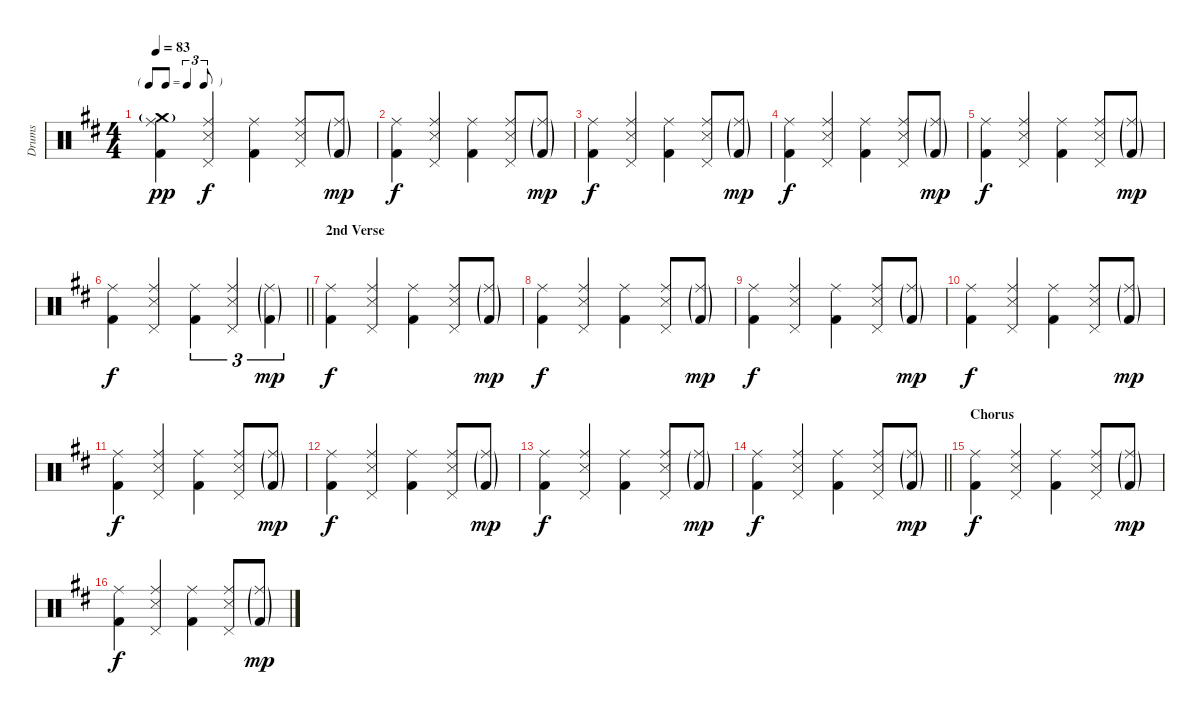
\track ("Drums" "Drums") {instrument percussion}
\staff {score}
\articulation defaults
\ts (4 4)
\tf triplet8th
\tempo 83
\clef neutral
\ks d
("Ride (middle)" "Crash medium (hit)"{g} "Kick (hit) 2").4{dy pp} ("Ride (middle)" "Snare (side stick) 3" "Pedal Hi-Hat (hit)").4{dy f} ("Ride (middle)" "Kick (hit) 2").4 ("Ride (middle)" "Snare (side stick) 3" "Pedal Hi-Hat (hit)").8 ("Ride (middle)"{g} "Kick (hit) 2"{g}).8{dy mp} |
("Ride (middle)" "Kick (hit) 2").4{dy f} ("Ride (middle)" "Snare (side stick) 3" "Pedal Hi-Hat (hit)").4 ("Ride (middle)" "Kick (hit) 2").4 ("Ride (middle)" "Snare (side stick) 3" "Pedal Hi-Hat (hit)").8 ("Ride (middle)"{g} "Kick (hit) 2"{g}).8{dy mp} |
("Ride (middle)" "Kick (hit) 2").4{dy f} ("Ride (middle)" "Snare (side stick) 3" "Pedal Hi-Hat (hit)").4 ("Ride (middle)" "Kick (hit) 2").4 ("Ride (middle)" "Snare (side stick) 3" "Pedal Hi-Hat (hit)").8 ("Ride (middle)"{g} "Kick (hit) 2"{g}).8{dy mp} |
("Ride (middle)" "Kick (hit) 2").4{dy f} ("Ride (middle)" "Snare (side stick) 3" "Pedal Hi-Hat (hit)").4 ("Ride (middle)" "Kick (hit) 2").4 ("Ride (middle)" "Snare (side stick) 3" "Pedal Hi-Hat (hit)").8 ("Ride (middle)"{g} "Kick (hit) 2"{g}).8{dy mp} |
("Ride (middle)" "Kick (hit) 2").4{dy f} ("Ride (middle)" "Snare (side stick) 3" "Pedal Hi-Hat (hit)").4 ("Ride (middle)" "Kick (hit) 2").4 ("Ride (middle)" "Snare (side stick) 3" "Pedal Hi-Hat (hit)").8 ("Ride (middle)"{g} "Kick (hit) 2"{g}).8{dy mp} |
\barLineRight lightlight
("Ride (middle)" "Kick (hit) 2").4{dy f} ("Ride (middle)" "Snare (side stick) 3" "Pedal Hi-Hat (hit)").4 ("Ride (middle)" "Kick (hit) 2").4{tu (3 2)} ("Ride (middle)" "Snare (side stick) 3" "Pedal Hi-Hat (hit)").4{tu (3 2)} ("Ride (middle)"{g} "Kick (hit) 2"{g}).4{tu (3 2) dy mp} |
\section ("" "2nd Verse")
("Ride (middle)" "Kick (hit) 2").4{dy f} ("Ride (middle)" "Snare (side stick) 3" "Pedal Hi-Hat (hit)").4 ("Ride (middle)" "Kick (hit) 2").4 ("Ride (middle)" "Snare (side stick) 3" "Pedal Hi-Hat (hit)").8 ("Ride (middle)"{g} "Kick (hit) 2"{g}).8{dy mp} |
("Ride (middle)" "Kick (hit) 2").4{dy f} ("Ride (middle)" "Snare (side stick) 3" "Pedal Hi-Hat (hit)").4 ("Ride (middle)" "Kick (hit) 2").4 ("Ride (middle)" "Snare (side stick) 3" "Pedal Hi-Hat (hit)").8 ("Ride (middle)"{g} "Kick (hit) 2"{g}).8{dy mp} |
("Ride (middle)" "Kick (hit) 2").4{dy f} ("Ride (middle)" "Snare (side stick) 3" "Pedal Hi-Hat (hit)").4 ("Ride (middle)" "Kick (hit) 2").4 ("Ride (middle)" "Snare (side stick) 3" "Pedal Hi-Hat (hit)").8 ("Ride (middle)"{g} "Kick (hit) 2"{g}).8{dy mp} |
("Ride (middle)" "Kick (hit) 2").4{dy f} ("Ride (middle)" "Snare (side stick) 3" "Pedal Hi-Hat (hit)").4 ("Ride (middle)" "Kick (hit) 2").4 ("Ride (middle)" "Snare (side stick) 3" "Pedal Hi-Hat (hit)").8 ("Ride (middle)"{g} "Kick (hit) 2"{g}).8{dy mp} |
("Ride (middle)" "Kick (hit) 2").4{dy f} ("Ride (middle)" "Snare (side stick) 3" "Pedal Hi-Hat (hit)").4 ("Ride (middle)" "Kick (hit) 2").4 ("Ride (middle)" "Snare (side stick) 3" "Pedal Hi-Hat (hit)").8 ("Ride (middle)"{g} "Kick (hit) 2"{g}).8{dy mp} |
("Ride (middle)" "Kick (hit) 2").4{dy f} ("Ride (middle)" "Snare (side stick) 3" "Pedal Hi-Hat (hit)").4 ("Ride (middle)" "Kick (hit) 2").4 ("Ride (middle)" "Snare (side stick) 3" "Pedal Hi-Hat (hit)").8 ("Ride (middle)"{g} "Kick (hit) 2"{g}).8{dy mp} |
("Ride (middle)" "Kick (hit) 2").4{dy f} ("Ride (middle)" "Snare (side stick) 3" "Pedal Hi-Hat (hit)").4 ("Ride (middle)" "Kick (hit) 2").4 ("Ride (middle)" "Snare (side stick) 3" "Pedal Hi-Hat (hit)").8 ("Ride (middle)"{g} "Kick (hit) 2"{g}).8{dy mp} |
\barLineRight lightlight
("Ride (middle)" "Kick (hit) 2").4{dy f} ("Ride (middle)" "Snare (side stick) 3" "Pedal Hi-Hat (hit)").4 ("Ride (middle)" "Kick (hit) 2").4 ("Ride (middle)" "Snare (side stick) 3" "Pedal Hi-Hat (hit)").8 ("Ride (middle)"{g} "Kick (hit) 2"{g}).8{dy mp} |
\section ("" "Chorus")
("Ride (middle)" "Kick (hit) 2").4{dy f} ("Ride (middle)" "Snare (side stick) 3" "Pedal Hi-Hat (hit)").4 ("Ride (middle)" "Kick (hit) 2").4 ("Ride (middle)" "Snare (side stick) 3" "Pedal Hi-Hat (hit)").8 ("Ride (middle)"{g} "Kick (hit) 2"{g}).8{dy mp} |
("Ride (middle)" "Kick (hit) 2").4{dy f} ("Ride (middle)" "Snare (side stick) 3" "Pedal Hi-Hat (hit)").4 ("Ride (middle)" "Kick (hit) 2").4 ("Ride (middle)" "Snare (side stick) 3" "Pedal Hi-Hat (hit)").8 ("Ride (middle)"{g} "Kick (hit) 2"{g}).8{dy mp}
